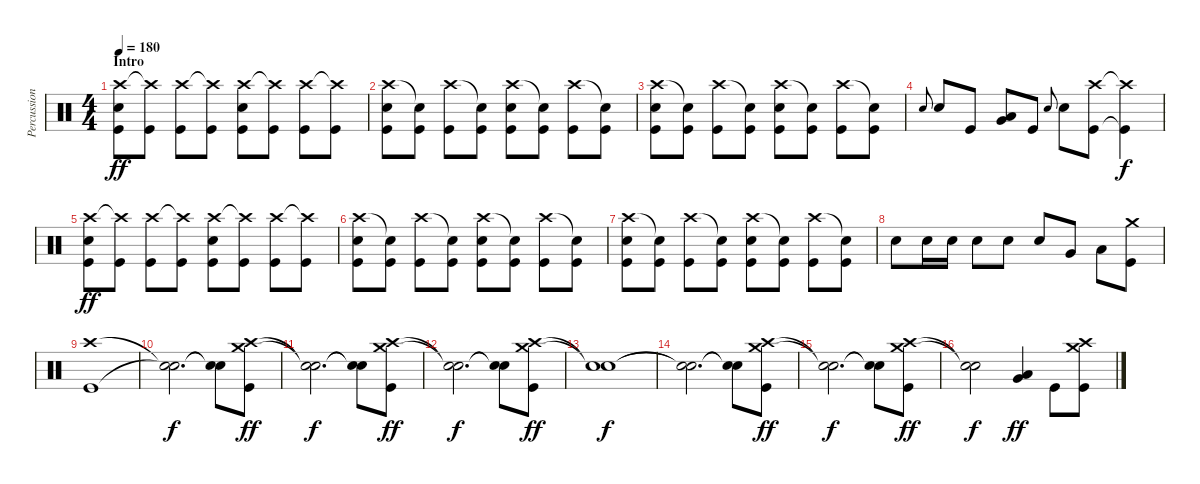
\track ("Percussion" "Percussion") {instrument percussion}
\staff {score}
\articulation defaults
\ts (4 4)
\section ("" "Intro")
\tempo 180
\clef neutral
\ks c
("Crash high (hit)" "Snare (hit) 2" "Kick (hit)").8{dy ff} ("Crash high (hit)"{t} "Kick (hit)").8 ("Crash high (hit)" "Kick (hit)").8 ("Crash high (hit)"{t} "Kick (hit)").8 ("Crash high (hit)" "Snare (hit) 2" "Kick (hit)").8 ("Crash high (hit)"{t} "Kick (hit)").8 ("Crash high (hit)" "Kick (hit)").8 ("Crash high (hit)"{t} "Kick (hit)").8 |
("Crash high (hit)" "Snare (hit) 2" "Kick (hit)").8 ("Snare (hit)"{t} "Kick (hit)").8 ("Crash high (hit)" "Kick (hit)").8 ("Snare (hit)"{t} "Kick (hit)").8 ("Crash high (hit)" "Snare (hit) 2" "Kick (hit)").8 ("Snare (hit)"{t} "Kick (hit)").8 ("Crash high (hit)" "Kick (hit)").8 ("Snare (hit)"{t} "Kick (hit)").8 |
("Crash high (hit)" "Snare (hit) 2" "Kick (hit)").8 ("Snare (hit)"{t} "Kick (hit)").8 ("Crash high (hit)" "Kick (hit)").8 ("Snare (hit)"{t} "Kick (hit)").8 ("Crash high (hit)" "Snare (hit) 2" "Kick (hit)").8 ("Snare (hit)"{t} "Kick (hit)").8 ("Crash high (hit)" "Kick (hit)").8 ("Snare (hit)"{t} "Kick (hit)").8 |
"Snare (hit) 2".8{gr onbeat} "Snare (hit) 2".8 "Kick (hit)".8 ("Very Low Tom (hit)" "Low Floor Tom (hit)").8 "Kick (hit)".8 "Snare (hit) 2".8{gr onbeat} "Snare (hit) 2".8 ("Crash high (hit)" "Kick (hit)").8 ("Crash high (hit)"{t} "Kick (hit)"{t}).4{dy f} |
("Crash high (hit)" "Snare (hit) 2" "Kick (hit)").8{dy ff} ("Crash high (hit)"{t} "Kick (hit)").8 ("Crash high (hit)" "Kick (hit)").8 ("Crash high (hit)"{t} "Kick (hit)").8 ("Crash high (hit)" "Snare (hit) 2" "Kick (hit)").8 ("Crash high (hit)"{t} "Kick (hit)").8 ("Crash high (hit)" "Kick (hit)").8 ("Crash high (hit)"{t} "Kick (hit)").8 |
("Crash high (hit)" "Snare (hit) 2" "Kick (hit)").8 ("Snare (hit)"{t} "Kick (hit)").8 ("Crash high (hit)" "Kick (hit)").8 ("Snare (hit)"{t} "Kick (hit)").8 ("Crash high (hit)" "Snare (hit) 2" "Kick (hit)").8 ("Snare (hit)"{t} "Kick (hit)").8 ("Crash high (hit)" "Kick (hit)").8 ("Snare (hit)"{t} "Kick (hit)").8 |
("Crash high (hit)" "Snare (hit) 2" "Kick (hit)").8 ("Snare (hit)"{t} "Kick (hit)").8 ("Crash high (hit)" "Kick (hit)").8 ("Snare (hit)"{t} "Kick (hit)").8 ("Crash high (hit)" "Snare (hit) 2" "Kick (hit)").8 ("Snare (hit)"{t} "Kick (hit)").8 ("Crash high (hit)" "Kick (hit)").8 ("Snare (hit)"{t} "Kick (hit)").8 |
"Snare (hit) 2".8 "Snare (hit) 2".16 "Snare (hit) 2".16 "Snare (hit) 2".8 "Snare (hit) 2".8 "Snare (hit) 2".8 "Very Low Tom (hit)".8 "Low Floor Tom (hit)".8 ("Crash medium (hit)" "Kick (hit)").8 |
("Crash high (hit)" "Kick (hit)").1 |
("Snare (hit)"{t} "Snare (hit)"{t}).2{d dy f} ("Snare (hit)"{t} "Snare (hit)"{t}).8 ("Crash medium (hit)" "Crash high (hit)" "Kick (hit)").8{dy ff} |
("Snare (hit)"{t} "Snare (hit)"{t}).2{d dy f} ("Snare (hit)"{t} "Snare (hit)"{t}).8 ("Crash medium (hit)" "Crash high (hit)" "Kick (hit)").8{dy ff} |
("Snare (hit)"{t} "Snare (hit)"{t}).2{d dy f} ("Snare (hit)"{t} "Snare (hit)"{t}).8 ("Crash high (hit)" "Crash medium (hit)" "Kick (hit)").8{dy ff} |
("Snare (hit)"{t} "Snare (hit)"{t}).1{dy f} |
("Snare (hit)"{t} "Snare (hit)"{t}).2{d} ("Snare (hit)"{t} "Snare (hit)"{t}).8 ("Crash medium (hit)" "Crash high (hit)" "Kick (hit)").8{dy ff} |
("Snare (hit)"{t} "Snare (hit)"{t}).2{d dy f} ("Snare (hit)"{t} "Snare (hit)"{t}).8 ("Crash medium (hit)" "Crash high (hit)" "Kick (hit)").8{dy ff} |
("Snare (hit)"{t} "Snare (hit)"{t}).2{dy f} ("Very Low Tom (hit)" "Low Floor Tom (hit)").4{dy ff} "Kick (hit)".8 ("Crash medium (hit)" "Crash high (hit)" "Kick (hit)").8
